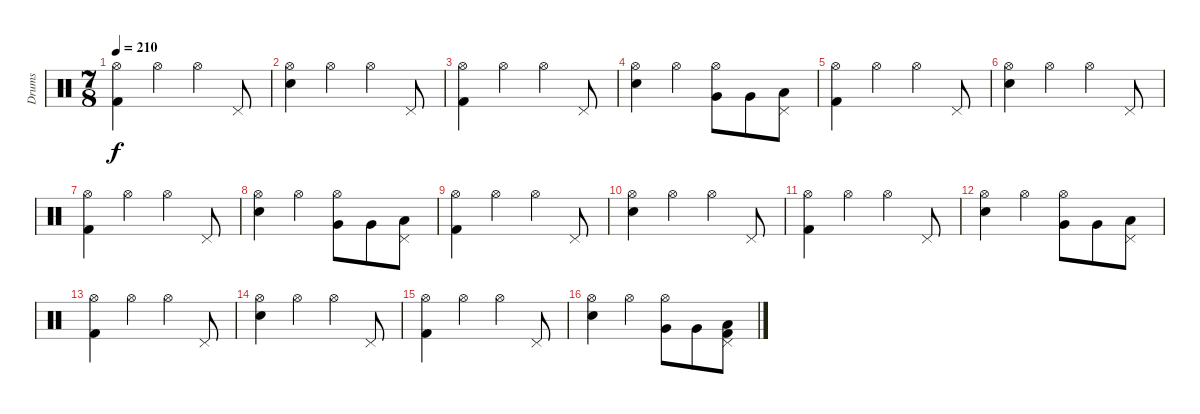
\track ("Drums" "Drums") {instrument percussion}
\staff {score}
\articulation defaults
\ts (7 8)
\tempo 210
\clef neutral
\ks c
("Hi-Hat (open)" "Kick (hit) 2").4{dy f} "Hi-Hat (open)".4 "Hi-Hat (open)".4 "Pedal Hi-Hat (hit)".8 |
("Hi-Hat (open)" "Electric Snare (hit)").4 "Hi-Hat (open)".4 "Hi-Hat (open)".4 "Pedal Hi-Hat (hit)".8 |
("Hi-Hat (open)" "Kick (hit) 2").4 "Hi-Hat (open)".4 "Hi-Hat (open)".4 "Pedal Hi-Hat (hit)".8 |
("Hi-Hat (open)" "Electric Snare (hit)").4 "Hi-Hat (open)".4 ("Hi-Hat (open)" "Very Low Tom (hit)").8 "Very Low Tom (hit)".8 ("Pedal Hi-Hat (hit)" "Low Tom (hit)").8 |
("Hi-Hat (open)" "Kick (hit) 2").4 "Hi-Hat (open)".4 "Hi-Hat (open)".4 "Pedal Hi-Hat (hit)".8 |
("Hi-Hat (open)" "Electric Snare (hit)").4 "Hi-Hat (open)".4 "Hi-Hat (open)".4 "Pedal Hi-Hat (hit)".8 |
("Hi-Hat (open)" "Kick (hit) 2").4 "Hi-Hat (open)".4 "Hi-Hat (open)".4 "Pedal Hi-Hat (hit)".8 |
("Hi-Hat (open)" "Electric Snare (hit)").4 "Hi-Hat (open)".4 ("Hi-Hat (open)" "Very Low Tom (hit)").8 "Very Low Tom (hit)".8 ("Pedal Hi-Hat (hit)" "Low Tom (hit)").8 |
("Hi-Hat (open)" "Kick (hit) 2").4 "Hi-Hat (open)".4 "Hi-Hat (open)".4 "Pedal Hi-Hat (hit)".8 |
("Hi-Hat (open)" "Electric Snare (hit)").4 "Hi-Hat (open)".4 "Hi-Hat (open)".4 "Pedal Hi-Hat (hit)".8 |
("Hi-Hat (open)" "Kick (hit) 2").4 "Hi-Hat (open)".4 "Hi-Hat (open)".4 "Pedal Hi-Hat (hit)".8 |
("Hi-Hat (open)" "Electric Snare (hit)").4 "Hi-Hat (open)".4 ("Hi-Hat (open)" "Very Low Tom (hit)").8 "Very Low Tom (hit)".8 ("Pedal Hi-Hat (hit)" "Low Tom (hit)").8 |
("Hi-Hat (open)" "Kick (hit) 2").4 "Hi-Hat (open)".4 "Hi-Hat (open)".4 "Pedal Hi-Hat (hit)".8 |
("Hi-Hat (open)" "Electric Snare (hit)").4 "Hi-Hat (open)".4 "Hi-Hat (open)".4 "Pedal Hi-Hat (hit)".8 |
("Hi-Hat (open)" "Kick (hit) 2").4 "Hi-Hat (open)".4 "Hi-Hat (open)".4 "Pedal Hi-Hat (hit)".8 |
("Hi-Hat (open)" "Electric Snare (hit)").4 "Hi-Hat (open)".4 ("Hi-Hat (open)" "Very Low Tom (hit)").8 "Very Low Tom (hit)".8 ("Pedal Hi-Hat (hit)" "Low Tom (hit)" "Kick (hit) 2").8
